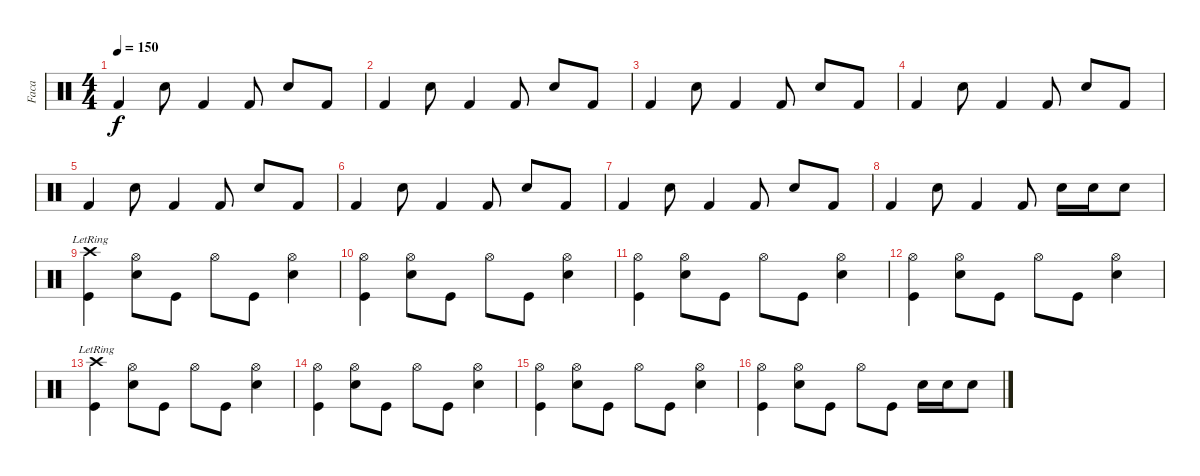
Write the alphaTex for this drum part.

\track ("Faca" "Faca") {instrument percussion}
\staff {score}
\articulation defaults
\ts (4 4)
\tempo 150
\clef neutral
\ks c "Kick (hit) 2".4{dy f} "Electric Snare (hit)".8 "Kick (hit) 2".4 "Kick (hit) 2".8 "Electric Snare (hit)".8 "Kick (hit) 2".8
|
"Kick (hit) 2".4 "Electric Snare (hit)".8 "Kick (hit) 2".4 "Kick (hit) 2".8 "Electric Snare (hit)".8 "Kick (hit) 2".8 |
"Kick (hit) 2".4 "Electric Snare (hit)".8 "Kick (hit) 2".4 "Kick (hit) 2".8 "Electric Snare (hit)".8 "Kick (hit) 2".8 |
"Kick (hit) 2".4 "Electric Snare (hit)".8 "Kick (hit) 2".4 "Kick (hit) 2".8 "Electric Snare (hit)".8 "Kick (hit) 2".8 |
"Kick (hit) 2".4 "Electric Snare (hit)".8 "Kick (hit) 2".4 "Kick (hit) 2".8 "Electric Snare (hit)".8 "Kick (hit) 2".8 |
"Kick (hit) 2".4 "Electric Snare (hit)".8 "Kick (hit) 2".4 "Kick (hit) 2".8 "Electric Snare (hit)".8 "Kick (hit) 2".8 |
"Kick (hit) 2".4 "Electric Snare (hit)".8 "Kick (hit) 2".4 "Kick (hit) 2".8 "Electric Snare (hit)".8 "Kick (hit) 2".8 |
"Kick (hit) 2".4 "Electric Snare (hit)".8 "Kick (hit) 2".4 "Kick (hit) 2".8 "Electric Snare (hit)".16 "Electric Snare (hit)".16 "Electric Snare (hit)".8 |
("Crash high (hit)"{lr} "Kick (hit)").4 ("Hi-Hat (open)" "Snare (hit) 2").8 "Kick (hit)".8 "Hi-Hat (open)".8 "Kick (hit)".8 ("Hi-Hat (open)" "Snare (hit) 2").4 |
("Hi-Hat (open)" "Kick (hit)").4 ("Hi-Hat (open)" "Snare (hit) 2").8 "Kick (hit)".8 "Hi-Hat (open)".8 "Kick (hit)".8 ("Hi-Hat (open)" "Snare (hit) 2").4 |
("Hi-Hat (open)" "Kick (hit)").4 ("Hi-Hat (open)" "Snare (hit) 2").8 "Kick (hit)".8 "Hi-Hat (open)".8 "Kick (hit)".8 ("Hi-Hat (open)" "Snare (hit) 2").4 |
("Hi-Hat (open)" "Kick (hit)").4 ("Hi-Hat (open)" "Snare (hit) 2").8 "Kick (hit)".8 "Hi-Hat (open)".8 "Kick (hit)".8 ("Hi-Hat (open)" "Snare (hit) 2").4 |
("Crash high (hit)"{lr} "Kick (hit)").4 ("Hi-Hat (open)" "Snare (hit) 2").8 "Kick (hit)".8 "Hi-Hat (open)".8 "Kick (hit)".8 ("Hi-Hat (open)" "Snare (hit) 2").4 |
("Hi-Hat (open)" "Kick (hit)").4 ("Hi-Hat (open)" "Snare (hit) 2").8 "Kick (hit)".8 "Hi-Hat (open)".8 "Kick (hit)".8 ("Hi-Hat (open)" "Snare (hit) 2").4 |
("Hi-Hat (open)" "Kick (hit)").4 ("Hi-Hat (open)" "Snare (hit) 2").8 "Kick (hit)".8 "Hi-Hat (open)".8 "Kick (hit)".8 ("Hi-Hat (open)" "Snare (hit) 2").4 |
("Hi-Hat (open)" "Kick (hit)").4 ("Hi-Hat (open)" "Snare (hit) 2").8 "Kick (hit)".8 "Hi-Hat (open)".8 "Kick (hit)".8 "Snare (hit) 2".16 "Snare (hit) 2".16 "Snare (hit) 2".8
